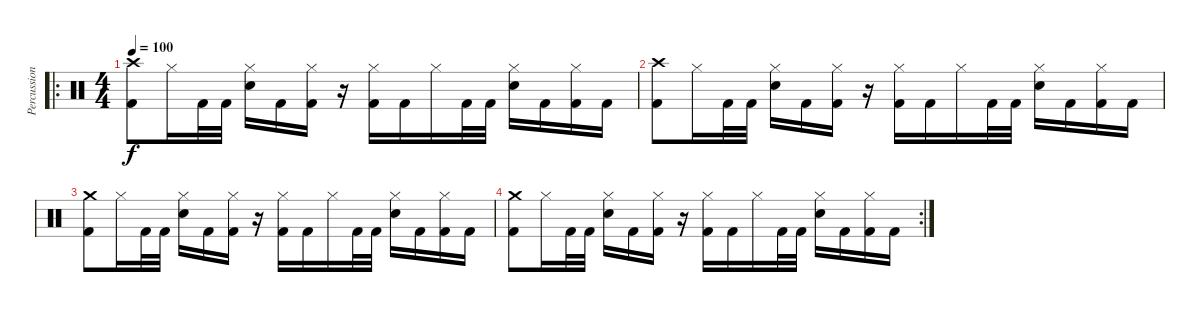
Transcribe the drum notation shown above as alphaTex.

\track ("Percussion" "Percussion") {instrument percussion}
\staff {score}
\articulation defaults
\ro
\ts (4 4)
\tempo 100
\clef neutral
\ks c
("Crash high (hit)" "Kick (hit) 2").8{dy f} "Hi-Hat (closed)".16 "Kick (hit) 2".32 "Kick (hit) 2".32 ("Hi-Hat (closed)" "Electric Snare (hit)").16 "Kick (hit) 2".16 ("Hi-Hat (closed)" "Kick (hit) 2").16 r.16 ("Hi-Hat (closed)" "Kick (hit) 2").16 "Kick (hit) 2".16 "Hi-Hat (closed)".16 "Kick (hit) 2".32 "Kick (hit) 2".32 ("Hi-Hat (closed)" "Electric Snare (hit)").16 "Kick (hit) 2".16 ("Hi-Hat (closed)" "Kick (hit) 2").16 "Kick (hit) 2".16 |
("Crash high (hit)" "Kick (hit) 2").8 "Hi-Hat (closed)".16 "Kick (hit) 2".32 "Kick (hit) 2".32 ("Hi-Hat (closed)" "Electric Snare (hit)").16 "Kick (hit) 2".16 ("Hi-Hat (closed)" "Kick (hit) 2").16 r.16 ("Hi-Hat (closed)" "Kick (hit) 2").16 "Kick (hit) 2".16 "Hi-Hat (closed)".16 "Kick (hit) 2".32 "Kick (hit) 2".32 ("Hi-Hat (closed)" "Electric Snare (hit)").16 "Kick (hit) 2".16 ("Hi-Hat (closed)" "Kick (hit) 2").16 "Kick (hit) 2".16 |
("Crash medium (hit)" "Kick (hit) 2").8 "Hi-Hat (closed)".16 "Kick (hit) 2".32 "Kick (hit) 2".32 ("Hi-Hat (closed)" "Electric Snare (hit)").16 "Kick (hit) 2".16 ("Hi-Hat (closed)" "Kick (hit) 2").16 r.16 ("Hi-Hat (closed)" "Kick (hit) 2").16 "Kick (hit) 2".16 "Hi-Hat (closed)".16 "Kick (hit) 2".32 "Kick (hit) 2".32 ("Hi-Hat (closed)" "Electric Snare (hit)").16 "Kick (hit) 2".16 ("Hi-Hat (closed)" "Kick (hit) 2").16 "Kick (hit) 2".16 |
\rc 2
("Crash medium (hit)" "Kick (hit) 2").8 "Hi-Hat (closed)".16 "Kick (hit) 2".32 "Kick (hit) 2".32 ("Hi-Hat (closed)" "Electric Snare (hit)").16 "Kick (hit) 2".16 ("Hi-Hat (closed)" "Kick (hit) 2").16 r.16 ("Hi-Hat (closed)" "Kick (hit) 2").16 "Kick (hit) 2".16 "Hi-Hat (closed)".16 "Kick (hit) 2".32 "Kick (hit) 2".32 ("Hi-Hat (closed)" "Electric Snare (hit)").16 "Kick (hit) 2".16 ("Hi-Hat (closed)" "Kick (hit) 2").16 "Kick (hit) 2".16
